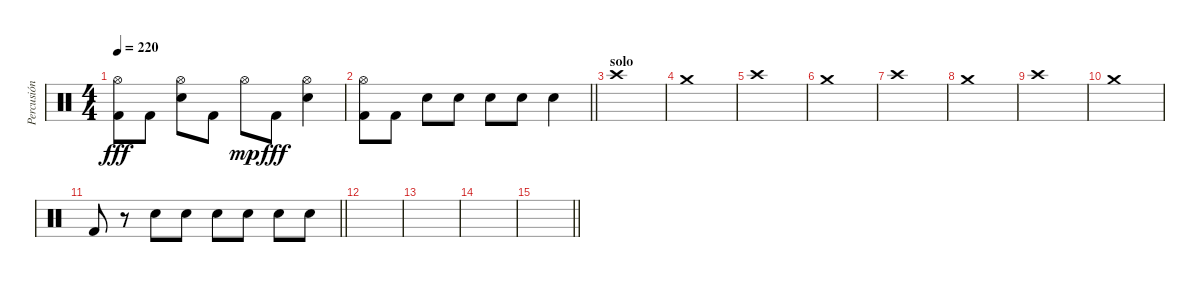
\track ("Percusión" "Percusión") {instrument percussion}
\staff {score}
\articulation defaults
\ts (4 4)
\tempo 220
\clef neutral
\ks c
("Hi-Hat (open)" "Kick (hit) 2").8{dy fff} "Kick (hit) 2".8 ("Hi-Hat (open)" "Snare (hit) 2").8 "Kick (hit) 2".8 "Hi-Hat (open)".8{dy mp} "Kick (hit) 2".8{dy fff} ("Hi-Hat (open)" "Snare (hit) 2").4 |
\barLineRight lightlight
("Hi-Hat (open)" "Kick (hit) 2").8 "Kick (hit) 2".8 "Snare (hit) 2".8 "Snare (hit) 2".8 "Snare (hit) 2".8 "Snare (hit) 2".8 "Snare (hit) 2".4 |
\section ("" "solo")
"Crash high (hit)".1 |
"Crash medium (hit)".1 |
"Crash high (hit)".1 |
"Crash medium (hit)".1 |
"Crash high (hit)".1 |
"Crash medium (hit)".1 |
"Crash high (hit)".1 |
"Crash medium (hit)".1 |
\barLineRight lightlight "Kick (hit) 2".8
r.8 "Snare (hit) 2".8 "Snare (hit) 2".8 "Snare (hit) 2".8 "Snare (hit) 2".8 "Snare (hit) 2".8 "Snare (hit) 2".8 |
|
|
|
\barLineRight lightlight
